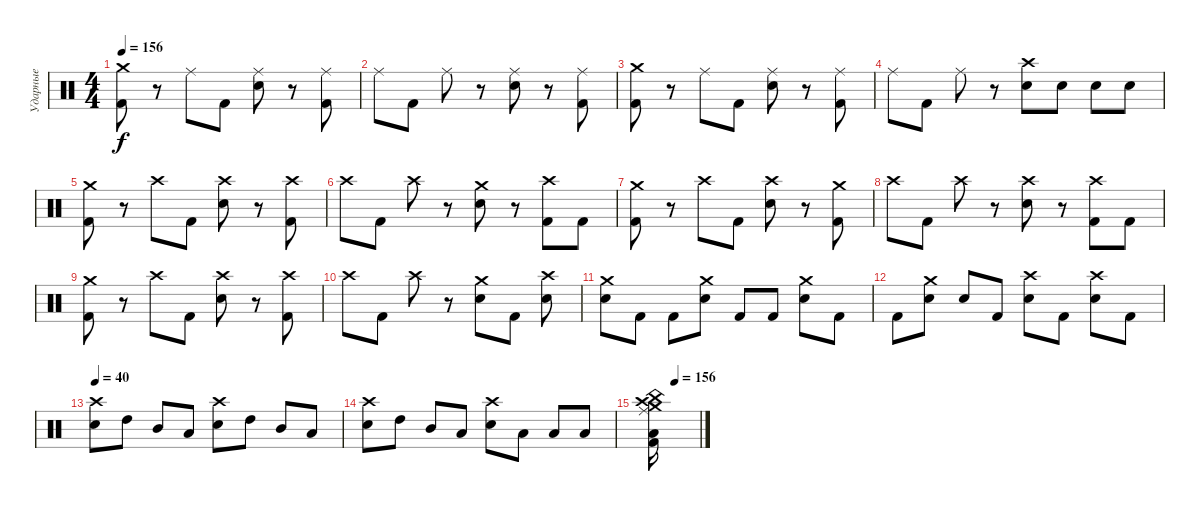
\track ("Ударные" "Ударные") {instrument percussion}
\staff {score}
\articulation defaults
\ts (4 4)
\tempo 156
\clef neutral
\ks c
("Crash medium (hit)" "Kick (hit) 2").8{dy f} r.8 "Ride (middle)".8 "Kick (hit) 2".8 ("Ride (middle)" "Electric Snare (hit)").8 r.8 ("Ride (middle)" "Kick (hit) 2").8 |
"Ride (middle)".8 "Kick (hit) 2".8 "Ride (middle)".8 r.8 ("Ride (middle)" "Electric Snare (hit)").8 r.8 ("Ride (middle)" "Kick (hit) 2").8 |
("Crash medium (hit)" "Kick (hit) 2").8 r.8 "Ride (middle)".8 "Kick (hit) 2".8 ("Ride (middle)" "Electric Snare (hit)").8 r.8 ("Ride (middle)" "Kick (hit) 2").8 |
"Ride (middle)".8 "Kick (hit) 2".8 "Ride (middle)".8 r.8 ("Crash high (hit)" "Electric Snare (hit)").8 "Electric Snare (hit)".8 "Electric Snare (hit)".8 "Electric Snare (hit)".8 |
("Crash medium (hit)" "Kick (hit) 2").8 r.8 "Crash high (hit)".8 "Kick (hit) 2".8 ("Crash high (hit)" "Electric Snare (hit)").8 r.8 ("Crash high (hit)" "Kick (hit) 2").8 |
"Crash high (hit)".8 "Kick (hit) 2".8 "Crash high (hit)".8 r.8 ("Crash medium (hit)" "Electric Snare (hit)").8 r.8 ("Crash high (hit)" "Kick (hit) 2").8 "Kick (hit) 2".8 |
("Crash medium (hit)" "Kick (hit) 2").8 r.8 "Crash high (hit)".8 "Kick (hit) 2".8 ("Crash high (hit)" "Electric Snare (hit)").8 r.8 ("Crash medium (hit)" "Kick (hit) 2").8 |
"Crash high (hit)".8 "Kick (hit) 2".8 "Crash high (hit)".8 r.8 ("Crash high (hit)" "Electric Snare (hit)").8 r.8 ("Crash high (hit)" "Kick (hit) 2").8 "Kick (hit) 2".8 |
("Crash medium (hit)" "Kick (hit) 2").8 r.8 "Crash high (hit)".8 "Kick (hit) 2".8 ("Crash high (hit)" "Electric Snare (hit)").8 r.8 ("Crash high (hit)" "Kick (hit) 2").8 |
"Crash high (hit)".8 "Kick (hit) 2".8 "Crash high (hit)".8 r.8 ("Crash medium (hit)" "Electric Snare (hit)").8 "Kick (hit) 2".8 ("Crash high (hit)" "Electric Snare (hit)").8 |
("Crash medium (hit)" "Electric Snare (hit)").8 "Kick (hit) 2".8 "Kick (hit) 2".8 ("Crash medium (hit)" "Electric Snare (hit)").8 "Kick (hit) 2".8 "Kick (hit) 2".8 ("Crash medium (hit)" "Electric Snare (hit)").8 "Kick (hit) 2".8 |
"Kick (hit) 2".8 ("Crash medium (hit)" "Electric Snare (hit)").8 "Electric Snare (hit)".8 "Kick (hit) 2".8 ("Crash high (hit)" "Electric Snare (hit)").8 "Kick (hit) 2".8 ("Crash high (hit)" "Electric Snare (hit)").8 "Kick (hit) 2".8 |
\tempo 40
("Crash high (hit)" "Electric Snare (hit)").8 "High Tom (hit)".8 "Mid Tom (hit)".8 "Low Tom (hit)".8 ("Crash high (hit)" "Electric Snare (hit)").8 "High Tom (hit)".8 "Mid Tom (hit)".8 "Low Tom (hit)".8 |
("Crash high (hit)" "Electric Snare (hit)").8 "High Tom (hit)".8 "Mid Tom (hit)".8 "Low Tom (hit)".8 ("Crash high (hit)" "Electric Snare (hit)").8 "Low Tom (hit)".8 "Low Tom (hit)".8 "Low Tom (hit)".8 |
\tempo (156 0.5)
("Crash high (hit)" "Crash medium (hit)" "Low Tom (hit)" "China (hit)" "Kick (hit) 2" "Ride (middle)").16
